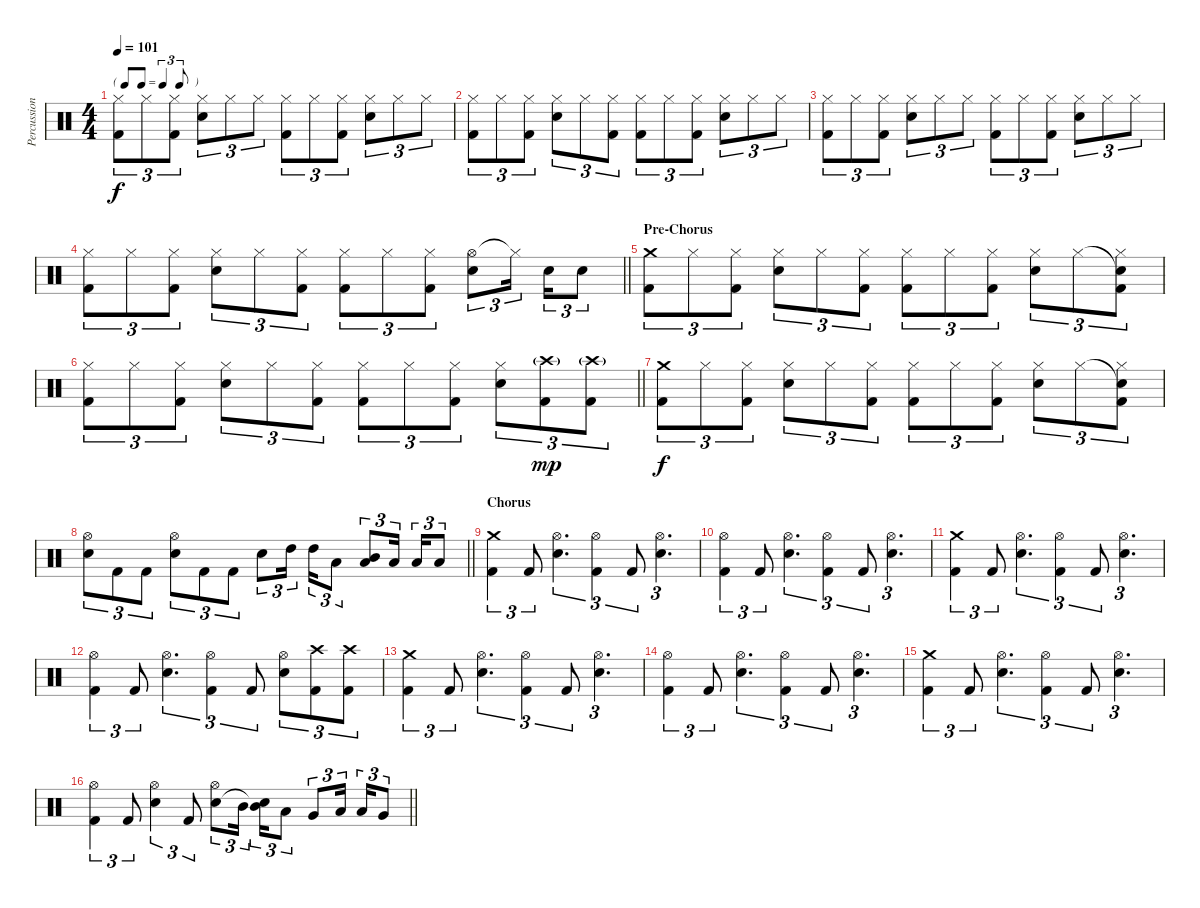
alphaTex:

\track ("Percussion" "Percussion") {instrument percussion}
\staff {score}
\articulation defaults
\ts (4 4)
\tf triplet8th
\tempo 101
\clef neutral
\ks c
("Hi-Hat (closed)" "Kick (hit) 2").8{tu (3 2) dy f} "Hi-Hat (closed)".8{tu (3 2)} ("Hi-Hat (closed)" "Kick (hit) 2").8{tu (3 2)} ("Hi-Hat (closed)" "Electric Snare (hit)").8{tu (3 2)} "Hi-Hat (closed)".8{tu (3 2)} "Hi-Hat (closed)".8{tu (3 2)} ("Hi-Hat (closed)" "Kick (hit) 2").8{tu (3 2)} "Hi-Hat (closed)".8{tu (3 2)} ("Hi-Hat (closed)" "Kick (hit) 2").8{tu (3 2)} ("Hi-Hat (closed)" "Electric Snare (hit)").8{tu (3 2)} "Hi-Hat (closed)".8{tu (3 2)} "Hi-Hat (closed)".8{tu (3 2)} |
("Hi-Hat (closed)" "Kick (hit) 2").8{tu (3 2)} "Hi-Hat (closed)".8{tu (3 2)} ("Hi-Hat (closed)" "Kick (hit) 2").8{tu (3 2)} ("Hi-Hat (closed)" "Electric Snare (hit)").8{tu (3 2)} "Hi-Hat (closed)".8{tu (3 2)} ("Hi-Hat (closed)" "Kick (hit) 2").8{tu (3 2)} ("Hi-Hat (closed)" "Kick (hit) 2").8{tu (3 2)} "Hi-Hat (closed)".8{tu (3 2)} ("Hi-Hat (closed)" "Kick (hit) 2").8{tu (3 2)} ("Hi-Hat (closed)" "Electric Snare (hit)").8{tu (3 2)} "Hi-Hat (closed)".8{tu (3 2)} "Hi-Hat (closed)".8{tu (3 2)} |
("Hi-Hat (closed)" "Kick (hit) 2").8{tu (3 2)} "Hi-Hat (closed)".8{tu (3 2)} ("Hi-Hat (closed)" "Kick (hit) 2").8{tu (3 2)} ("Hi-Hat (closed)" "Electric Snare (hit)").8{tu (3 2)} "Hi-Hat (closed)".8{tu (3 2)} "Hi-Hat (closed)".8{tu (3 2)} ("Hi-Hat (closed)" "Kick (hit) 2").8{tu (3 2)} "Hi-Hat (closed)".8{tu (3 2)} ("Hi-Hat (closed)" "Kick (hit) 2").8{tu (3 2)} ("Hi-Hat (closed)" "Electric Snare (hit)").8{tu (3 2)} "Hi-Hat (closed)".8{tu (3 2)} "Hi-Hat (closed)".8{tu (3 2)} |
\barLineRight lightlight
("Hi-Hat (closed)" "Kick (hit) 2").8{tu (3 2)} "Hi-Hat (closed)".8{tu (3 2)} ("Hi-Hat (closed)" "Kick (hit) 2").8{tu (3 2)} ("Hi-Hat (closed)" "Electric Snare (hit)").8{tu (3 2)} "Hi-Hat (closed)".8{tu (3 2)} ("Hi-Hat (closed)" "Kick (hit) 2").8{tu (3 2)} ("Hi-Hat (closed)" "Kick (hit) 2").8{tu (3 2)} "Hi-Hat (closed)".8{tu (3 2)} ("Hi-Hat (closed)" "Kick (hit) 2").8{tu (3 2)} ("Hi-Hat (open)" "Electric Snare (hit)").8{tu (3 2)} "Hi-Hat (closed)"{t}.16{tu (3 2) beam splitsecondary} "Electric Snare (hit)".16{tu (3 2)} "Electric Snare (hit)".8{tu (3 2)} |
\section ("" "Pre-Chorus")
("Crash medium (hit)" "Kick (hit) 2").8{tu (3 2)} "Hi-Hat (closed)".8{tu (3 2)} ("Hi-Hat (closed)" "Kick (hit) 2").8{tu (3 2)} ("Hi-Hat (closed)" "Electric Snare (hit)").8{tu (3 2)} "Hi-Hat (closed)".8{tu (3 2)} ("Hi-Hat (closed)" "Kick (hit) 2").8{tu (3 2)} ("Hi-Hat (closed)" "Kick (hit) 2").8{tu (3 2)} "Hi-Hat (closed)".8{tu (3 2)} ("Hi-Hat (closed)" "Kick (hit) 2").8{tu (3 2)} ("Hi-Hat (closed)" "Electric Snare (hit)").8{tu (3 2)} "Hi-Hat (closed)".8{tu (3 2)} ("Snare (hit)"{t} "Hi-Hat (closed)" "Kick (hit) 2").8{tu (3 2)} |
\barLineRight lightlight
("Hi-Hat (closed)" "Kick (hit) 2").8{tu (3 2)} "Hi-Hat (closed)".8{tu (3 2)} ("Hi-Hat (closed)" "Kick (hit) 2").8{tu (3 2)} ("Hi-Hat (closed)" "Electric Snare (hit)").8{tu (3 2)} "Hi-Hat (closed)".8{tu (3 2)} ("Hi-Hat (closed)" "Kick (hit) 2").8{tu (3 2)} ("Hi-Hat (closed)" "Kick (hit) 2").8{tu (3 2)} "Hi-Hat (closed)".8{tu (3 2)} ("Hi-Hat (closed)" "Kick (hit) 2").8{tu (3 2)} ("Hi-Hat (closed)" "Electric Snare (hit)").8{tu (3 2)} ("Crash high (hit)"{g} "Kick (hit) 2").8{tu (3 2) dy mp} ("Crash high (hit)"{g} "Kick (hit) 2").8{tu (3 2)} |
("Crash medium (hit)" "Kick (hit) 2").8{tu (3 2) dy f} "Hi-Hat (closed)".8{tu (3 2)} ("Hi-Hat (closed)" "Kick (hit) 2").8{tu (3 2)} ("Hi-Hat (closed)" "Electric Snare (hit)").8{tu (3 2)} "Hi-Hat (closed)".8{tu (3 2)} ("Hi-Hat (closed)" "Kick (hit) 2").8{tu (3 2)} ("Hi-Hat (closed)" "Kick (hit) 2").8{tu (3 2)} "Hi-Hat (closed)".8{tu (3 2)} ("Hi-Hat (closed)" "Kick (hit) 2").8{tu (3 2)} ("Hi-Hat (closed)" "Electric Snare (hit)").8{tu (3 2)} "Hi-Hat (closed)".8{tu (3 2)} ("Snare (hit)"{t} "Hi-Hat (closed)" "Kick (hit) 2").8{tu (3 2)} |
\barLineRight lightlight
("Hi-Hat (open)" "Electric Snare (hit)").8{tu (3 2)} "Kick (hit) 2".8{tu (3 2)} "Kick (hit) 2".8{tu (3 2)} ("Hi-Hat (open)" "Electric Snare (hit)").8{tu (3 2)} "Kick (hit) 2".8{tu (3 2)} "Kick (hit) 2".8{tu (3 2)} "Electric Snare (hit)".8{tu (3 2)} "High Tom (hit)".16{tu (3 2) beam splitsecondary} "High Tom (hit)".16{tu (3 2)} "Low Tom (hit)".8{tu (3 2)} ("Mid Tom (hit)" "Low Tom (hit)").8{tu (3 2)} "Low Tom (hit)".16{tu (3 2) beam splitsecondary} "Low Tom (hit)".16{tu (3 2)} "Low Floor Tom (hit)".8{tu (3 2)} |
\section ("" "Chorus")
("Crash medium (hit)" "Kick (hit) 2").4{tu (3 2)} "Kick (hit) 2".8{tu (3 2)} ("Hi-Hat (open)" "Electric Snare (hit)").4{d tu (3 2)} ("Hi-Hat (open)" "Kick (hit) 2").4{tu (3 2)} "Kick (hit) 2".8{tu (3 2)} ("Hi-Hat (open)" "Electric Snare (hit)").4{d tu (3 2)} |
("Hi-Hat (open)" "Kick (hit) 2").4{tu (3 2)} "Kick (hit) 2".8{tu (3 2)} ("Hi-Hat (open)" "Electric Snare (hit)").4{d tu (3 2)} ("Hi-Hat (open)" "Kick (hit) 2").4{tu (3 2)} "Kick (hit) 2".8{tu (3 2)} ("Hi-Hat (open)" "Electric Snare (hit)").4{d tu (3 2)} |
("Crash medium (hit)" "Kick (hit) 2").4{tu (3 2)} "Kick (hit) 2".8{tu (3 2)} ("Hi-Hat (open)" "Electric Snare (hit)").4{d tu (3 2)} ("Hi-Hat (open)" "Kick (hit) 2").4{tu (3 2)} "Kick (hit) 2".8{tu (3 2)} ("Hi-Hat (open)" "Electric Snare (hit)").4{d tu (3 2)} |
("Hi-Hat (open)" "Kick (hit) 2").4{tu (3 2)} "Kick (hit) 2".8{tu (3 2)} ("Hi-Hat (open)" "Electric Snare (hit)").4{d tu (3 2)} ("Hi-Hat (open)" "Kick (hit) 2").4{tu (3 2)} "Kick (hit) 2".8{tu (3 2)} ("Hi-Hat (open)" "Electric Snare (hit)").8{tu (3 2)} ("Crash high (hit)" "Kick (hit) 2").8{tu (3 2)} ("Crash high (hit)" "Kick (hit) 2").8{tu (3 2)} |
("Crash medium (hit)" "Kick (hit) 2").4{tu (3 2)} "Kick (hit) 2".8{tu (3 2)} ("Hi-Hat (open)" "Electric Snare (hit)").4{d tu (3 2)} ("Hi-Hat (open)" "Kick (hit) 2").4{tu (3 2)} "Kick (hit) 2".8{tu (3 2)} ("Hi-Hat (open)" "Electric Snare (hit)").4{d tu (3 2)} |
("Hi-Hat (open)" "Kick (hit) 2").4{tu (3 2)} "Kick (hit) 2".8{tu (3 2)} ("Hi-Hat (open)" "Electric Snare (hit)").4{d tu (3 2)} ("Hi-Hat (open)" "Kick (hit) 2").4{tu (3 2)} "Kick (hit) 2".8{tu (3 2)} ("Hi-Hat (open)" "Electric Snare (hit)").4{d tu (3 2)} |
("Crash medium (hit)" "Kick (hit) 2").4{tu (3 2)} "Kick (hit) 2".8{tu (3 2)} ("Hi-Hat (open)" "Electric Snare (hit)").4{d tu (3 2)} ("Hi-Hat (open)" "Kick (hit) 2").4{tu (3 2)} "Kick (hit) 2".8{tu (3 2)} ("Hi-Hat (open)" "Electric Snare (hit)").4{d tu (3 2)} |
\barLineRight lightlight
("Hi-Hat (open)" "Kick (hit) 2").4{tu (3 2)} "Kick (hit) 2".8{tu (3 2)} ("Hi-Hat (open)" "Electric Snare (hit)").4{tu (3 2)} "Kick (hit) 2".8{tu (3 2)} ("Hi-Hat (open)" "Electric Snare (hit)").8{tu (3 2)} "Mid Tom (hit)".16{tu (3 2) beam splitsecondary} ("Mid Tom (hit)" "Snare (hit)"{t}).16{tu (3 2)} "Low Tom (hit)".8{tu (3 2)} "Very Low Tom (hit)".8{tu (3 2)} "Low Tom (hit)".16{tu (3 2) beam splitsecondary} "Low Tom (hit)".16{tu (3 2)} "Very Low Tom (hit)".8{tu (3 2)}
